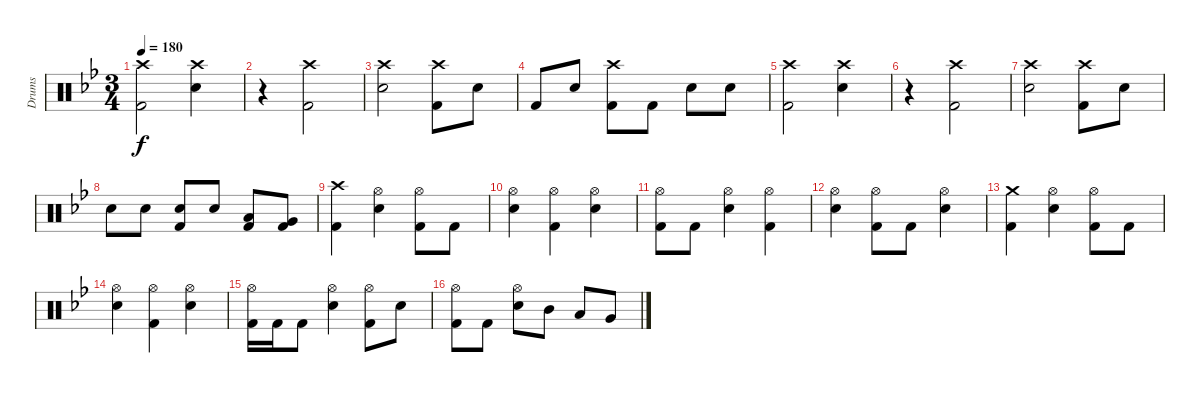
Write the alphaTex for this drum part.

\bracketExtendMode groupsimilarinstruments
\track ("Drumkit" "Drums") {instrument percussion}
\staff {score}
\articulation defaults
\ts (3 4)
\tempo 180
\clef neutral
\ks bb
("Crash high (hit)"{acc forcenatural} "Kick (hit) 2"{acc forcenatural}).2{dy f} ("Crash high (hit)"{acc forcenatural} "Snare (hit) 2"{acc forcenatural}).4 |
r.4 ("Crash high (hit)"{acc forcenatural} "Kick (hit) 2"{acc forcenatural}).2 |
("Crash high (hit)"{acc forcenatural} "Snare (hit) 2"{acc forcenatural}).2 ("Crash high (hit)"{acc forcenatural} "Kick (hit) 2"{acc forcenatural}).8 "Snare (hit) 2"{acc forcenatural}.8 |
"Kick (hit) 2"{acc forcenatural}.8 "Snare (hit) 2"{acc forcenatural}.8 ("Crash high (hit)"{acc forcenatural} "Kick (hit) 2"{acc forcenatural}).8 "Kick (hit) 2"{acc forcenatural}.8 "Snare (hit) 2"{acc forcenatural}.8 "Snare (hit) 2"{acc forcenatural}.8 |
("Crash high (hit)"{acc forcenatural} "Kick (hit) 2"{acc forcenatural}).2 ("Crash high (hit)"{acc forcenatural} "Snare (hit) 2"{acc forcenatural}).4 |
r.4 ("Crash high (hit)"{acc forcenatural} "Kick (hit) 2"{acc forcenatural}).2 |
("Crash high (hit)"{acc forcenatural} "Snare (hit) 2"{acc forcenatural}).2 ("Crash high (hit)"{acc forcenatural} "Kick (hit) 2"{acc forcenatural}).8 "Snare (hit) 2"{acc forcenatural}.8 |
"Snare (hit) 2"{acc forcenatural}.8 "Snare (hit) 2"{acc forcenatural}.8 ("Snare (hit) 2"{acc forcenatural} "Kick (hit) 2"{acc forcenatural}).8 "Snare (hit) 2"{acc forcenatural}.8 ("Low Tom (hit)"{acc forcenatural} "Kick (hit) 2"{acc forcenatural}).8 ("Very Low Tom (hit)"{acc forcenatural} "Kick (hit) 2"{acc forcenatural}).8 |
("Crash high (hit)"{acc forcenatural} "Kick (hit) 2"{acc forcenatural}).4 ("Hi-Hat (open)"{acc forcenatural} "Snare (hit) 2"{acc forcenatural}).4 ("Hi-Hat (open)"{acc forcenatural} "Kick (hit) 2"{acc forcenatural}).8 "Kick (hit) 2"{acc forcenatural}.8 |
("Hi-Hat (open)"{acc forcenatural} "Snare (hit) 2"{acc forcenatural}).4 ("Hi-Hat (open)"{acc forcenatural} "Kick (hit) 2"{acc forcenatural}).4 ("Hi-Hat (open)"{acc forcenatural} "Snare (hit) 2"{acc forcenatural}).4 |
("Hi-Hat (open)"{acc forcenatural} "Kick (hit) 2"{acc forcenatural}).8 "Kick (hit) 2"{acc forcenatural}.8 ("Hi-Hat (open)"{acc forcenatural} "Snare (hit) 2"{acc forcenatural}).4 ("Hi-Hat (open)"{acc forcenatural} "Kick (hit) 2"{acc forcenatural}).4 |
("Hi-Hat (open)"{acc forcenatural} "Snare (hit) 2"{acc forcenatural}).4 ("Hi-Hat (open)"{acc forcenatural} "Kick (hit) 2"{acc forcenatural}).8 "Kick (hit) 2"{acc forcenatural}.8 ("Hi-Hat (open)"{acc forcenatural} "Snare (hit) 2"{acc forcenatural}).4 |
("Crash medium (hit)"{acc forcenatural} "Kick (hit) 2"{acc forcenatural}).4 ("Hi-Hat (open)"{acc forcenatural} "Snare (hit) 2"{acc forcenatural}).4 ("Hi-Hat (open)"{acc forcenatural} "Kick (hit) 2"{acc forcenatural}).8 "Kick (hit) 2"{acc forcenatural}.8 |
("Hi-Hat (open)"{acc forcenatural} "Snare (hit) 2"{acc forcenatural}).4 ("Hi-Hat (open)"{acc forcenatural} "Kick (hit) 2"{acc forcenatural}).4 ("Hi-Hat (open)"{acc forcenatural} "Snare (hit) 2"{acc forcenatural}).4 |
("Hi-Hat (open)"{acc forcenatural} "Kick (hit) 2"{acc forcenatural}).16 "Kick (hit) 2"{acc forcenatural}.16 "Kick (hit) 2"{acc forcenatural}.8 ("Hi-Hat (open)"{acc forcenatural} "Snare (hit) 2"{acc forcenatural}).4 ("Hi-Hat (open)"{acc forcenatural} "Kick (hit) 2"{acc forcenatural}).8 "Snare (hit) 2"{acc forcenatural}.8 |
("Hi-Hat (open)"{acc forcenatural} "Kick (hit) 2"{acc forcenatural}).8 "Kick (hit) 2"{acc forcenatural}.8 ("Hi-Hat (open)"{acc forcenatural} "Snare (hit) 2"{acc forcenatural}).8 "Mid Tom (hit)"{acc forcenatural}.8 "Low Tom (hit)"{acc forcenatural}.8 "Very Low Tom (hit)"{acc forcenatural}.8
